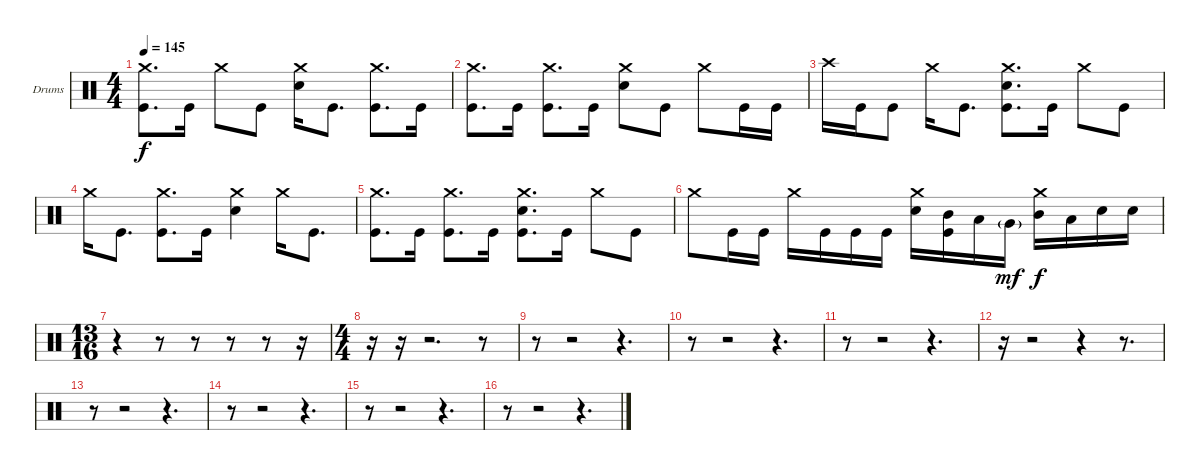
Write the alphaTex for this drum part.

\bracketExtendMode groupsimilarinstruments
\firstSystemTrackNameOrientation horizontal
\otherSystemsTrackNameOrientation horizontal
\track ("Drumkit" "Drums") {instrument percussion}
\staff {score}
\articulation defaults
\ts (4 4)
\tempo 145
\clef neutral
\ks c
("Crash medium (hit)" "Kick (hit)").8{d dy f} "Kick (hit)".16 "Crash medium (hit)".8 "Kick (hit)".8 ("Crash medium (hit)" "Snare (hit) 2").16 "Kick (hit)".8{d} ("Crash medium (hit)" "Kick (hit)").8{d} "Kick (hit)".16 |
("Crash medium (hit)" "Kick (hit)").8{d} "Kick (hit)".16 ("Crash medium (hit)" "Kick (hit)").8{d} "Kick (hit)".16 ("Crash medium (hit)" "Snare (hit) 2").8 "Kick (hit)".8 "Crash medium (hit)".8 "Kick (hit)".16 "Kick (hit)".16 |
"Crash high (hit)".16 "Kick (hit)".16 "Kick (hit)".8 "Crash medium (hit)".16 "Kick (hit)".8{d} ("Crash medium (hit)" "Snare (hit) 2" "Kick (hit)").8{d} "Kick (hit)".16 "Crash medium (hit)".8 "Kick (hit)".8 |
"Crash medium (hit)".16 "Kick (hit)".8{d} ("Crash medium (hit)" "Kick (hit)").8{d} "Kick (hit)".16 ("Crash medium (hit)" "Snare (hit) 2").4 "Crash medium (hit)".16 "Kick (hit)".8{d} |
("Crash medium (hit)" "Kick (hit)").8{d} "Kick (hit)".16 ("Crash medium (hit)" "Kick (hit)").8{d} "Kick (hit)".16 ("Crash medium (hit)" "Snare (hit) 2" "Kick (hit)").8{d} "Kick (hit)".16 "Crash medium (hit)".8 "Kick (hit)".8 |
"Crash medium (hit)".8 "Kick (hit)".16 "Kick (hit)".16 "Crash medium (hit)".16 "Kick (hit)".16 "Kick (hit)".16 "Kick (hit)".16 ("Crash medium (hit)" "Snare (hit) 2").16 ("Mid Tom (hit)" "Kick (hit)").16 "Low Tom (hit)".16 "Very Low Tom (hit)"{g}.16{dy mf} ("Crash medium (hit)" "Mid Tom (hit)").16{dy f} "Low Tom (hit)".16 "Snare (hit) 2".16 "Snare (hit) 2".16 |
\ts (13 16)
\beaming (8 6)
r.4 r.8 r.8 r.8 r.8 r.16 |
\ts (4 4)
\beaming (8 2 2 2 2)
r.16 r.16 r.2{d} r.8 |
r.8 r.2 r.4{d} |
r.8 r.2 r.4{d} |
r.8 r.2 r.4{d} |
r.16 r.2 r.4 r.8{d} |
r.8 r.2 r.4{d} |
r.8 r.2 r.4{d} |
r.8 r.2 r.4{d} |
r.8 r.2 r.4{d}
